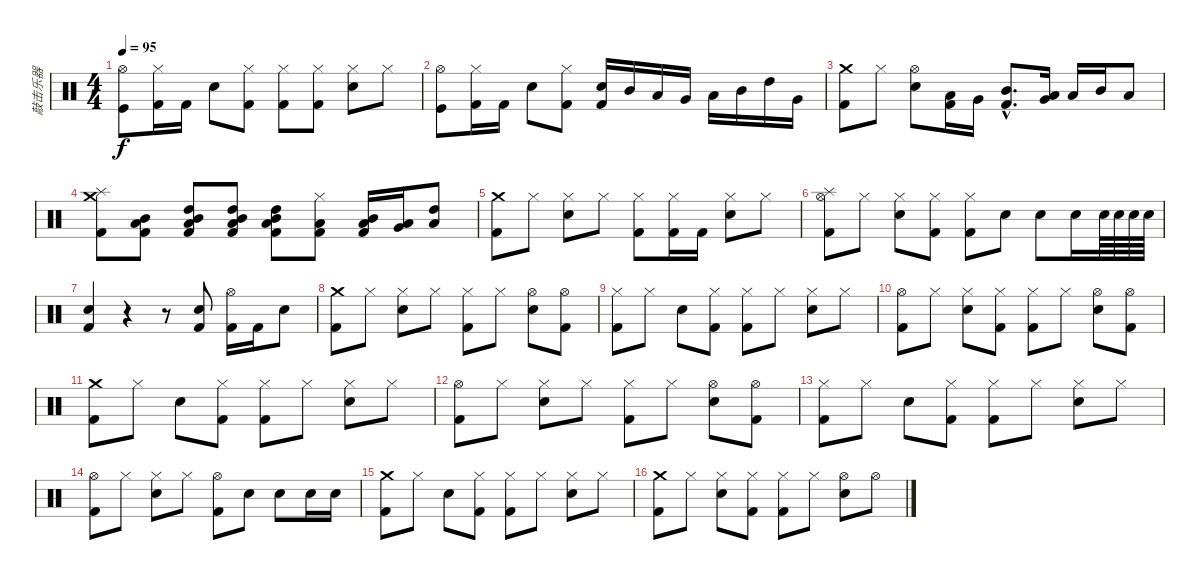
\track ("敲击乐器" "敲击乐器") {instrument percussion}
\staff {score}
\articulation defaults
\ts (4 4)
\tempo 95
\clef neutral
\ks c
("Hi-Hat (open)" "Kick (hit)").8{dy f} ("Hi-Hat (closed)" "Kick (hit) 2").16 "Kick (hit) 2".16 "Electric Snare (hit)".8 ("Hi-Hat (closed)" "Kick (hit) 2").8 ("Hi-Hat (closed)" "Kick (hit) 2").8 ("Hi-Hat (closed)" "Kick (hit) 2").8 ("Hi-Hat (closed)" "Electric Snare (hit)").8 "Hi-Hat (closed)".8 |
("Hi-Hat (open)" "Kick (hit)").8 ("Hi-Hat (closed)" "Kick (hit) 2").16 "Kick (hit) 2".16 "Electric Snare (hit)".8 ("Hi-Hat (closed)" "Kick (hit) 2").8 ("Electric Snare (hit)" "Kick (hit) 2").16 "Mid Tom (hit)".16 "Low Tom (hit)".16 "Very Low Tom (hit)".16 "Low Tom (hit)".16 "Mid Tom (hit)".16 "High Tom (hit)".16 "Very Low Tom (hit)".16 |
("Crash medium (hit)" "Kick (hit) 2").8 "Hi-Hat (closed)".8 ("Hi-Hat (open)" "Electric Snare (hit)").8 ("Low Tom (hit)" "Kick (hit) 2").16 "Very Low Tom (hit)".16 ("Mid Tom (hit)"{hac} "Kick (hit) 2"{hac}).8{d} ("Very Low Tom (hit)" "Low Tom (hit)").16 "Low Tom (hit)".16 "Mid Tom (hit)".16 "Low Floor Tom (hit)".8 |
("Splash (hit)" "Crash medium (hit)" "Kick (hit) 2").8 ("Mid Tom (hit)" "Low Tom (hit)" "Kick (hit) 2").8 ("Mid Tom (hit)" "High Tom (hit)" "Low Tom (hit)" "Kick (hit) 2").8 ("Mid Tom (hit)" "High Tom (hit)" "Low Tom (hit)" "Kick (hit) 2").8 ("Mid Tom (hit)" "High Tom (hit)" "Low Tom (hit)" "Kick (hit) 2").8 ("Hi-Hat (closed)" "Low Tom (hit)" "Kick (hit) 2").8 ("Mid Tom (hit)" "Low Tom (hit)" "Kick (hit) 2").16 ("Low Tom (hit)" "Very Low Tom (hit)").16 ("High Tom (hit)" "Low Floor Tom (hit)").8 |
("Crash medium (hit)" "Kick (hit) 2").8 "Hi-Hat (closed)".8 ("Hi-Hat (closed)" "Electric Snare (hit)").8 "Hi-Hat (closed)".8 ("Hi-Hat (closed)" "Kick (hit) 2").8 ("Hi-Hat (closed)" "Kick (hit) 2").16 "Kick (hit) 2".16 ("Hi-Hat (closed)" "Electric Snare (hit)").8 "Hi-Hat (closed)".8 |
("Hi-Hat (open)" "Splash (hit)" "Kick (hit) 2").8 "Hi-Hat (closed)".8 ("Hi-Hat (closed)" "Electric Snare (hit)").8 ("Hi-Hat (closed)" "Kick (hit) 2").8 ("Hi-Hat (closed)" "Kick (hit) 2").8 "Electric Snare (hit)".8 "Electric Snare (hit)".8 "Electric Snare (hit)".16 "Electric Snare (hit)".64 "Electric Snare (hit)".64 "Electric Snare (hit)".64 "Electric Snare (hit)".64 |
("Electric Snare (hit)" "Kick (hit) 2").4 r.4 r.8 ("Electric Snare (hit)" "Kick (hit) 2").8 ("Hi-Hat (open)" "Kick (hit) 2").16 "Kick (hit) 2".16 "Electric Snare (hit)".8 |
("Crash medium (hit)" "Kick (hit) 2").8 "Hi-Hat (closed)".8 ("Hi-Hat (closed)" "Electric Snare (hit)").8 "Hi-Hat (closed)".8 ("Hi-Hat (closed)" "Kick (hit) 2").8 "Hi-Hat (closed)".8 ("Hi-Hat (open)" "Electric Snare (hit)").8 ("Hi-Hat (open)" "Kick (hit) 2").8 |
("Hi-Hat (closed)" "Kick (hit) 2").8 "Hi-Hat (closed)".8 "Electric Snare (hit)".8 ("Hi-Hat (closed)" "Kick (hit) 2").8 ("Hi-Hat (closed)" "Kick (hit) 2").8 "Hi-Hat (closed)".8 ("Hi-Hat (closed)" "Electric Snare (hit)").8 "Hi-Hat (closed)".8 |
("Hi-Hat (open)" "Kick (hit) 2").8 "Hi-Hat (closed)".8 ("Hi-Hat (closed)" "Electric Snare (hit)").8 ("Hi-Hat (closed)" "Kick (hit) 2").8 ("Hi-Hat (closed)" "Kick (hit) 2").8 "Hi-Hat (closed)".8 ("Hi-Hat (open)" "Electric Snare (hit)").8 ("Hi-Hat (open)" "Kick (hit) 2").8 |
("Crash medium (hit)" "Kick (hit) 2").8 "Hi-Hat (closed)".8 "Electric Snare (hit)".8 ("Hi-Hat (closed)" "Kick (hit) 2").8 ("Hi-Hat (closed)" "Kick (hit) 2").8 "Hi-Hat (closed)".8 ("Hi-Hat (closed)" "Electric Snare (hit)").8 "Hi-Hat (closed)".8 |
("Hi-Hat (open)" "Kick (hit) 2").8 "Hi-Hat (closed)".8 ("Hi-Hat (closed)" "Electric Snare (hit)").8 "Hi-Hat (closed)".8 ("Hi-Hat (closed)" "Kick (hit) 2").8 "Hi-Hat (closed)".8 ("Hi-Hat (open)" "Electric Snare (hit)").8 ("Hi-Hat (open)" "Kick (hit) 2").8 |
("Hi-Hat (closed)" "Kick (hit) 2").8 "Hi-Hat (closed)".8 "Electric Snare (hit)".8 ("Hi-Hat (closed)" "Kick (hit) 2").8 ("Hi-Hat (closed)" "Kick (hit) 2").8 "Hi-Hat (closed)".8 ("Hi-Hat (closed)" "Electric Snare (hit)").8 "Hi-Hat (closed)".8 |
("Hi-Hat (open)" "Kick (hit) 2").8 "Hi-Hat (closed)".8 ("Hi-Hat (closed)" "Electric Snare (hit)").8 "Hi-Hat (closed)".8 ("Hi-Hat (open)" "Kick (hit) 2").8 "Electric Snare (hit)".8 "Electric Snare (hit)".8 "Electric Snare (hit)".16 "Electric Snare (hit)".16 |
("Crash medium (hit)" "Kick (hit) 2").8 "Hi-Hat (closed)".8 "Electric Snare (hit)".8 ("Hi-Hat (closed)" "Kick (hit) 2").8 ("Hi-Hat (closed)" "Kick (hit) 2").8 "Hi-Hat (closed)".8 ("Hi-Hat (closed)" "Electric Snare (hit)").8 "Hi-Hat (closed)".8 |
("Crash medium (hit)" "Kick (hit) 2").8 "Hi-Hat (closed)".8 ("Hi-Hat (closed)" "Electric Snare (hit)").8 ("Hi-Hat (closed)" "Kick (hit) 2").8 ("Hi-Hat (closed)" "Kick (hit) 2").8 "Hi-Hat (closed)".8 ("Hi-Hat (open)" "Electric Snare (hit)").8 "Hi-Hat (open)".8
